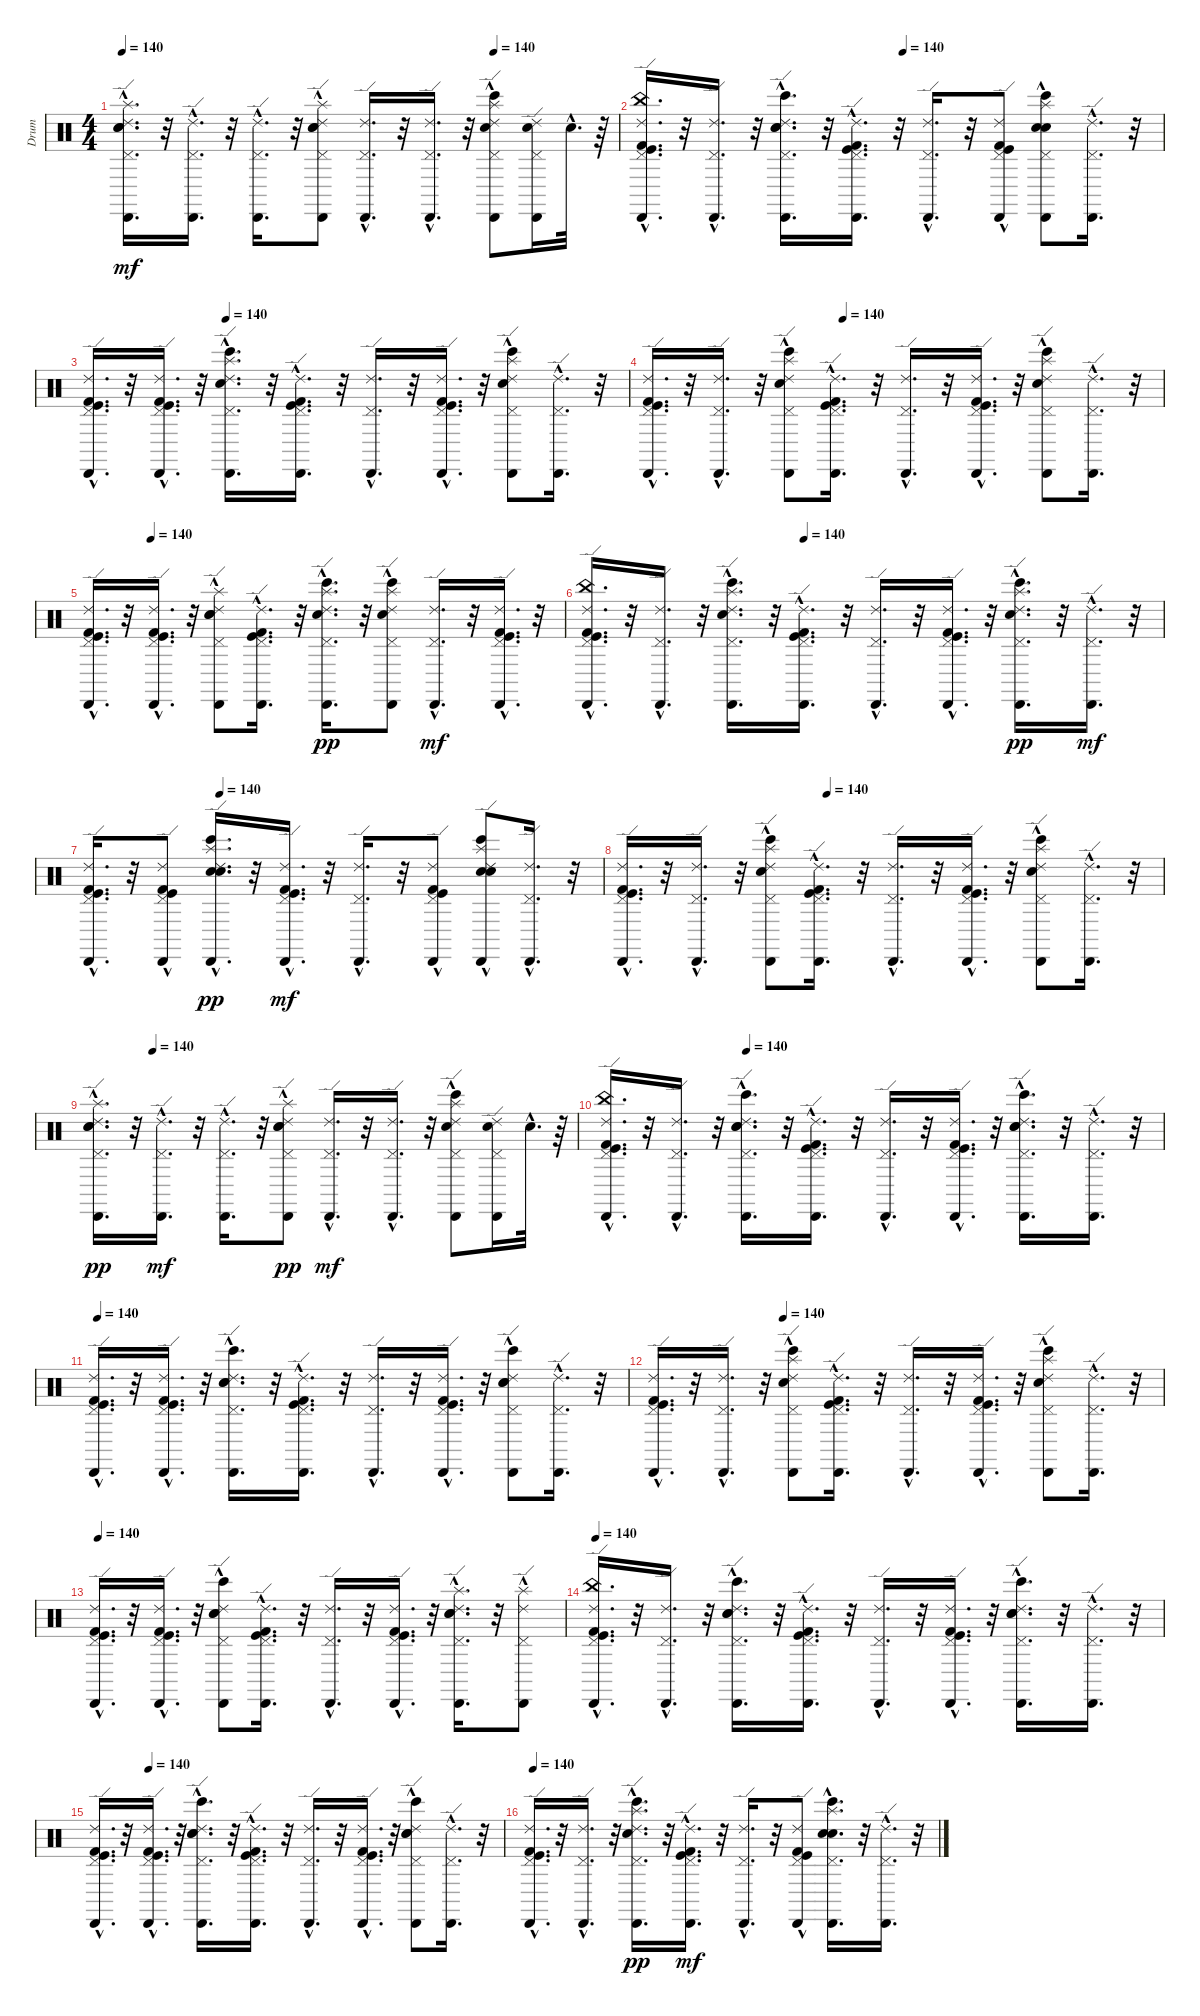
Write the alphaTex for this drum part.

\track ("Drum" "Drum") {instrument percussion}
\staff {score}
\articulation defaults
\ts (4 4)
\tempo 140
\tempo (140 0.75)
\clef neutral
\ks c
("Pedal Hi-Hat (hit)"{hac} "Cabasa (hit)"{hac} "Ride (edge) 2"{hac} "Electric Snare (hit)"{hac} "Snare (hit) 2"{hac} "Splash (hit)"{hac}).16{d dy mf} r.32 ("Pedal Hi-Hat (hit)"{hac} "Ride (edge) 2"{hac} "Cabasa (hit)"{hac}).16{d} r.32 ("Ride (edge) 2"{hac} "Cabasa (hit)"{hac} "Pedal Hi-Hat (hit)"{hac}).16{d} r.32 ("Pedal Hi-Hat (hit)"{hac} "Cabasa (hit)"{hac} "Ride (edge) 2"{hac} "Electric Snare (hit)"{hac} "Snare (hit) 2"{hac} "Splash (hit)"{hac}).8 ("Pedal Hi-Hat (hit)"{hac} "Ride (edge) 2"{hac} "Cabasa (hit)"{hac}).16{d} r.32 ("Pedal Hi-Hat (hit)"{hac} "Ride (edge) 2"{hac} "Cabasa (hit)"{hac}).16{d} r.32 ("Pedal Hi-Hat (hit)"{hac} "Ride (edge) 2"{hac} "Splash (hit)" "Cabasa (hit)"{hac} "Bongo High (hit)"{hac} "Electric Snare (hit)"{hac}).8 ("Pedal Hi-Hat (hit)" "Ride (edge) 2" "Cabasa (hit)" "Snare (hit) 2").16 "Snare (hit) 2"{hac}.32{d} r.64 |
\tempo (140 0.5)
("Cabasa (hit)"{hac} "Kick (hit)"{hac} "Ride (edge) 2"{hac} "China (hit)"{hac} "Kick (hit) 2"{hac} "Pedal Hi-Hat (hit)"{hac}).16{d} r.32 ("Ride (edge) 2"{hac} "Cabasa (hit)"{hac} "Pedal Hi-Hat (hit)"{hac}).16{d} r.32 ("Bongo High (hit)"{hac} "Cabasa (hit)"{hac} "Pedal Hi-Hat (hit)"{hac} "Snare (hit) 2"{hac} "Electric Snare (hit)"{hac} "Ride (edge) 2"{hac}).16{d} r.32 ("Kick (hit) 2"{hac} "Pedal Hi-Hat (hit)"{hac} "Kick (hit)"{hac} "Ride (edge) 2"{hac} "Cabasa (hit)"{hac}).16{d} r.32 ("Ride (edge) 2"{hac} "Pedal Hi-Hat (hit)"{hac} "Cabasa (hit)"{hac}).16{d} r.32 ("Ride (edge) 2"{hac} "Cabasa (hit)"{hac} "Kick (hit) 2"{hac} "Kick (hit)"{hac} "Pedal Hi-Hat (hit)"{hac}).8 ("Splash (hit)"{hac} "Electric Snare (hit)" "Pedal Hi-Hat (hit)"{hac} "Cabasa (hit)"{hac} "Snare (hit) 2"{hac} "Bongo High (hit)"{hac}).8 ("Pedal Hi-Hat (hit)"{hac} "Ride (edge) 2"{hac} "Cabasa (hit)"{hac}).16{d} r.32 |
\tempo (140 0.25)
("Kick (hit)"{hac} "Cabasa (hit)"{hac} "Ride (edge) 2"{hac} "Pedal Hi-Hat (hit)"{hac} "Kick (hit) 2"{hac}).16{d} r.32 ("Cabasa (hit)"{hac} "Ride (edge) 2"{hac} "Kick (hit) 2"{hac} "Kick (hit)"{hac} "Pedal Hi-Hat (hit)"{hac}).16{d} r.32 ("Splash (hit)"{hac} "Pedal Hi-Hat (hit)"{hac} "Cabasa (hit)"{hac} "Ride (edge) 2"{hac} "Bongo High (hit)"{hac} "Snare (hit) 2"{hac}).16{d} r.32 ("Kick (hit) 2"{hac} "Kick (hit)"{hac} "Cabasa (hit)"{hac} "Pedal Hi-Hat (hit)"{hac} "Ride (edge) 2"{hac}).16{d} r.32 ("Ride (edge) 2"{hac} "Pedal Hi-Hat (hit)"{hac} "Cabasa (hit)"{hac}).16{d} r.32 ("Pedal Hi-Hat (hit)"{hac} "Kick (hit)"{hac} "Kick (hit) 2"{hac} "Cabasa (hit)"{hac} "Ride (edge) 2"{hac}).16{d} r.32 ("Ride (edge) 2"{hac} "Pedal Hi-Hat (hit)"{hac} "Cabasa (hit)"{hac} "Splash (hit)"{hac} "Bongo High (hit)"{hac} "Snare (hit) 2").8 ("Pedal Hi-Hat (hit)"{hac} "Ride (edge) 2"{hac} "Cabasa (hit)"{hac}).16{d} r.32 |
\tempo (140 0.375)
("Kick (hit)"{hac} "Cabasa (hit)"{hac} "Ride (edge) 2"{hac} "Pedal Hi-Hat (hit)"{hac} "Kick (hit) 2"{hac}).16{d} r.32 ("Cabasa (hit)"{hac} "Ride (edge) 2"{hac} "Pedal Hi-Hat (hit)"{hac}).16{d} r.32 ("Bongo High (hit)"{hac} "Electric Snare (hit)" "Splash (hit)"{hac} "Pedal Hi-Hat (hit)"{hac} "Ride (edge) 2"{hac} "Cabasa (hit)"{hac}).8 ("Cabasa (hit)"{hac} "Kick (hit) 2"{hac} "Ride (edge) 2"{hac} "Kick (hit)"{hac} "Pedal Hi-Hat (hit)"{hac}).16{d} r.32 ("Ride (edge) 2"{hac} "Cabasa (hit)"{hac} "Pedal Hi-Hat (hit)"{hac}).16{d} r.32 ("Cabasa (hit)"{hac} "Kick (hit)"{hac} "Ride (edge) 2"{hac} "Pedal Hi-Hat (hit)"{hac} "Kick (hit) 2"{hac}).16{d} r.32 ("Snare (hit) 2"{hac} "Splash (hit)"{hac} "Cabasa (hit)"{hac} "Bongo High (hit)" "Pedal Hi-Hat (hit)"{hac} "Ride (edge) 2"{hac}).8 ("Cabasa (hit)"{hac} "Ride (edge) 2"{hac} "Pedal Hi-Hat (hit)"{hac}).16{d} r.32 |
\tempo (140 0.125)
("Cabasa (hit)"{hac} "Kick (hit)"{hac} "Kick (hit) 2"{hac} "Ride (edge) 2"{hac} "Pedal Hi-Hat (hit)"{hac}).16{d} r.32 ("Ride (edge) 2"{hac} "Pedal Hi-Hat (hit)"{hac} "Kick (hit) 2"{hac} "Cabasa (hit)"{hac} "Kick (hit)"{hac}).16{d} r.32 ("Snare (hit) 2"{hac} "Cabasa (hit)"{hac} "Electric Snare (hit)"{hac} "Splash (hit)"{hac} "Pedal Hi-Hat (hit)"{hac} "Ride (edge) 2"{hac}).8 ("Ride (edge) 2"{hac} "Pedal Hi-Hat (hit)"{hac} "Kick (hit) 2"{hac} "Cabasa (hit)"{hac} "Kick (hit)"{hac}).16{d} r.32 ("Cabasa (hit)"{hac} "Ride (edge) 2"{hac} "Pedal Hi-Hat (hit)"{hac} "Electric Snare (hit)"{hac} "Bongo High (hit)"{hac} "Splash (hit)"{hac}).16{d dy pp} r.32 ("Pedal Hi-Hat (hit)"{hac} "Ride (edge) 2"{hac} "Cabasa (hit)"{hac} "Electric Snare (hit)" "Bongo High (hit)"{hac} "Splash (hit)"{hac}).8 ("Ride (edge) 2"{hac} "Pedal Hi-Hat (hit)"{hac} "Cabasa (hit)"{hac}).16{d dy mf} r.32 ("Ride (edge) 2"{hac} "Pedal Hi-Hat (hit)"{hac} "Cabasa (hit)"{hac} "Kick (hit)"{hac} "Kick (hit) 2"{hac}).16{d} r.32 |
\tempo (140 0.375)
("Kick (hit) 2"{hac} "Pedal Hi-Hat (hit)"{hac} "China (hit)"{hac} "Ride (edge) 2"{hac} "Kick (hit)"{hac} "Cabasa (hit)"{hac}).16{d} r.32 ("Cabasa (hit)"{hac} "Ride (edge) 2"{hac} "Pedal Hi-Hat (hit)"{hac}).16{d} r.32 ("Splash (hit)"{hac} "Ride (edge) 2"{hac} "Pedal Hi-Hat (hit)"{hac} "Cabasa (hit)"{hac} "Bongo High (hit)"{hac} "Snare (hit) 2"{hac}).16{d} r.32 ("Kick (hit)"{hac} "Pedal Hi-Hat (hit)"{hac} "Ride (edge) 2"{hac} "Cabasa (hit)"{hac} "Kick (hit) 2"{hac}).16{d} r.32 ("Cabasa (hit)"{hac} "Ride (edge) 2"{hac} "Pedal Hi-Hat (hit)"{hac}).16{d} r.32 ("Kick (hit)"{hac} "Kick (hit) 2"{hac} "Cabasa (hit)"{hac} "Pedal Hi-Hat (hit)"{hac} "Ride (edge) 2"{hac}).16{d} r.32 ("Snare (hit) 2"{hac} "Cabasa (hit)"{hac} "Pedal Hi-Hat (hit)"{hac} "Ride (edge) 2"{hac} "Bongo High (hit)"{hac} "Splash (hit)"{hac}).16{d dy pp} r.32 ("Ride (edge) 2"{hac} "Pedal Hi-Hat (hit)"{hac} "Cabasa (hit)"{hac}).16{d dy mf} r.32 |
\tempo (140 0.25)
("Pedal Hi-Hat (hit)"{hac} "Kick (hit) 2"{hac} "Cabasa (hit)"{hac} "Ride (edge) 2"{hac} "Kick (hit)"{hac}).16{d} r.32 ("Pedal Hi-Hat (hit)"{hac} "Kick (hit) 2"{hac} "Kick (hit)"{hac} "Ride (edge) 2"{hac} "Cabasa (hit)"{hac}).8 ("Snare (hit) 2"{hac} "Electric Snare (hit)"{hac} "Ride (edge) 2"{hac} "Bongo High (hit)"{hac} "Cabasa (hit)"{hac} "Splash (hit)"{hac}).16{d dy pp} r.32 ("Pedal Hi-Hat (hit)"{hac} "Cabasa (hit)"{hac} "Ride (edge) 2"{hac} "Kick (hit)"{hac} "Kick (hit) 2"{hac}).16{d dy mf} r.32 ("Cabasa (hit)"{hac} "Pedal Hi-Hat (hit)"{hac} "Ride (edge) 2"{hac}).16{d} r.32 ("Cabasa (hit)"{hac} "Ride (edge) 2"{hac} "Kick (hit) 2"{hac} "Pedal Hi-Hat (hit)"{hac} "Kick (hit)"{hac}).8 ("Electric Snare (hit)" "Bongo High (hit)"{hac} "Splash (hit)"{hac} "Snare (hit) 2"{hac} "Cabasa (hit)"{hac} "Ride (edge) 2"{hac}).8 ("Cabasa (hit)"{hac} "Pedal Hi-Hat (hit)"{hac} "Ride (edge) 2"{hac}).16{d} r.32 |
\tempo (140 0.375)
("Pedal Hi-Hat (hit)"{hac} "Kick (hit)"{hac} "Cabasa (hit)"{hac} "Ride (edge) 2"{hac} "Kick (hit) 2"{hac}).16{d} r.32 ("Cabasa (hit)"{hac} "Pedal Hi-Hat (hit)"{hac} "Ride (edge) 2"{hac}).16{d} r.32 ("Ride (edge) 2"{hac} "Cabasa (hit)"{hac} "Splash (hit)"{hac} "Pedal Hi-Hat (hit)"{hac} "Bongo High (hit)"{hac} "Snare (hit) 2").8 ("Kick (hit)"{hac} "Ride (edge) 2"{hac} "Cabasa (hit)"{hac} "Kick (hit) 2"{hac} "Pedal Hi-Hat (hit)"{hac}).16{d} r.32 ("Cabasa (hit)"{hac} "Pedal Hi-Hat (hit)"{hac} "Ride (edge) 2"{hac}).16{d} r.32 ("Pedal Hi-Hat (hit)"{hac} "Cabasa (hit)"{hac} "Kick (hit) 2"{hac} "Kick (hit)"{hac} "Ride (edge) 2"{hac}).16{d} r.32 ("Electric Snare (hit)"{hac} "Pedal Hi-Hat (hit)"{hac} "Ride (edge) 2"{hac} "Splash (hit)"{hac} "Cabasa (hit)"{hac} "Bongo High (hit)").8 ("Cabasa (hit)"{hac} "Pedal Hi-Hat (hit)"{hac} "Ride (edge) 2"{hac}).16{d} r.32 |
\tempo (140 0.125)
("Pedal Hi-Hat (hit)"{hac} "Cabasa (hit)"{hac} "Ride (edge) 2"{hac} "Electric Snare (hit)"{hac} "Snare (hit) 2"{hac} "Splash (hit)"{hac}).16{d dy pp} r.32 ("Pedal Hi-Hat (hit)"{hac} "Ride (edge) 2"{hac} "Cabasa (hit)"{hac}).16{d dy mf} r.32 ("Ride (edge) 2"{hac} "Cabasa (hit)"{hac} "Pedal Hi-Hat (hit)"{hac}).16{d} r.32 ("Pedal Hi-Hat (hit)"{hac} "Cabasa (hit)"{hac} "Ride (edge) 2"{hac} "Electric Snare (hit)"{hac} "Snare (hit) 2"{hac} "Splash (hit)"{hac}).8{dy pp} ("Pedal Hi-Hat (hit)"{hac} "Ride (edge) 2"{hac} "Cabasa (hit)"{hac}).16{d dy mf} r.32 ("Pedal Hi-Hat (hit)"{hac} "Ride (edge) 2"{hac} "Cabasa (hit)"{hac}).16{d} r.32 ("Pedal Hi-Hat (hit)"{hac} "Ride (edge) 2"{hac} "Splash (hit)" "Cabasa (hit)"{hac} "Bongo High (hit)"{hac} "Electric Snare (hit)"{hac}).8 ("Pedal Hi-Hat (hit)" "Ride (edge) 2" "Cabasa (hit)" "Snare (hit) 2").16 "Snare (hit) 2"{hac}.32{d} r.64 |
\tempo (140 0.25)
("Pedal Hi-Hat (hit)"{hac} "Kick (hit)"{hac} "Kick (hit) 2"{hac} "Ride (edge) 2"{hac} "Cabasa (hit)"{hac} "China (hit)"{hac}).16{d} r.32 ("Pedal Hi-Hat (hit)"{hac} "Ride (edge) 2"{hac} "Cabasa (hit)"{hac}).16{d} r.32 ("Pedal Hi-Hat (hit)"{hac} "Snare (hit) 2"{hac} "Ride (edge) 2"{hac} "Cabasa (hit)"{hac} "Electric Snare (hit)"{hac} "Bongo High (hit)"{hac}).16{d} r.32 ("Pedal Hi-Hat (hit)"{hac} "Kick (hit)"{hac} "Kick (hit) 2"{hac} "Ride (edge) 2"{hac} "Cabasa (hit)"{hac}).16{d} r.32 ("Pedal Hi-Hat (hit)"{hac} "Ride (edge) 2"{hac} "Cabasa (hit)"{hac}).16{d} r.32 ("Pedal Hi-Hat (hit)"{hac} "Kick (hit)"{hac} "Kick (hit) 2"{hac} "Ride (edge) 2"{hac} "Cabasa (hit)"{hac}).16{d} r.32 ("Pedal Hi-Hat (hit)"{hac} "Snare (hit) 2"{hac} "Ride (edge) 2"{hac} "Cabasa (hit)"{hac} "Electric Snare (hit)"{hac} "Bongo High (hit)"{hac}).16{d} r.32 ("Pedal Hi-Hat (hit)"{hac} "Ride (edge) 2"{hac} "Cabasa (hit)"{hac}).16{d} r.32 |
\tempo 140
("Kick (hit)"{hac} "Pedal Hi-Hat (hit)"{hac} "Kick (hit) 2"{hac} "Ride (edge) 2"{hac} "Cabasa (hit)"{hac}).16{d} r.32 ("Pedal Hi-Hat (hit)"{hac} "Kick (hit)"{hac} "Kick (hit) 2"{hac} "Ride (edge) 2"{hac} "Cabasa (hit)"{hac}).16{d} r.32 ("Snare (hit) 2"{hac} "Pedal Hi-Hat (hit)"{hac} "Ride (edge) 2"{hac} "Cabasa (hit)"{hac} "Bongo High (hit)"{hac} "Electric Snare (hit)"{hac}).16{d} r.32 ("Kick (hit)"{hac} "Pedal Hi-Hat (hit)"{hac} "Kick (hit) 2"{hac} "Ride (edge) 2"{hac} "Cabasa (hit)"{hac}).16{d} r.32 ("Pedal Hi-Hat (hit)"{hac} "Ride (edge) 2"{hac} "Cabasa (hit)"{hac}).16{d} r.32 ("Kick (hit)"{hac} "Pedal Hi-Hat (hit)"{hac} "Kick (hit) 2"{hac} "Ride (edge) 2"{hac} "Cabasa (hit)"{hac}).16{d} r.32 ("Snare (hit) 2"{hac} "Pedal Hi-Hat (hit)"{hac} "Ride (edge) 2"{hac} "Cabasa (hit)"{hac} "Bongo High (hit)"{hac} "Electric Snare (hit)").8 ("Pedal Hi-Hat (hit)"{hac} "Ride (edge) 2"{hac} "Cabasa (hit)"{hac}).16{d} r.32 |
\tempo (140 0.25)
("Cabasa (hit)"{hac} "Ride (edge) 2"{hac} "Kick (hit) 2"{hac} "Pedal Hi-Hat (hit)"{hac} "Kick (hit)"{hac}).16{d} r.32 ("Cabasa (hit)"{hac} "Pedal Hi-Hat (hit)"{hac} "Ride (edge) 2"{hac}).16{d} r.32 ("Snare (hit) 2" "Cabasa (hit)"{hac} "Splash (hit)"{hac} "Pedal Hi-Hat (hit)"{hac} "Ride (edge) 2"{hac} "Bongo High (hit)"{hac}).8 ("Cabasa (hit)"{hac} "Ride (edge) 2"{hac} "Kick (hit) 2"{hac} "Kick (hit)"{hac} "Pedal Hi-Hat (hit)"{hac}).16{d} r.32 ("Ride (edge) 2"{hac} "Pedal Hi-Hat (hit)"{hac} "Cabasa (hit)"{hac}).16{d} r.32 ("Ride (edge) 2"{hac} "Pedal Hi-Hat (hit)"{hac} "Cabasa (hit)"{hac} "Kick (hit) 2"{hac} "Kick (hit)"{hac}).16{d} r.32 ("Electric Snare (hit)"{hac} "Splash (hit)" "Bongo High (hit)"{hac} "Ride (edge) 2"{hac} "Pedal Hi-Hat (hit)"{hac} "Cabasa (hit)"{hac}).8 ("Ride (edge) 2"{hac} "Cabasa (hit)"{hac} "Pedal Hi-Hat (hit)"{hac}).16{d} r.32 |
\tempo 140
("Cabasa (hit)"{hac} "Kick (hit)"{hac} "Kick (hit) 2"{hac} "Pedal Hi-Hat (hit)"{hac} "Ride (edge) 2"{hac}).16{d} r.32 ("Kick (hit) 2"{hac} "Kick (hit)"{hac} "Cabasa (hit)"{hac} "Ride (edge) 2"{hac} "Pedal Hi-Hat (hit)"{hac}).16{d} r.32 ("Cabasa (hit)"{hac} "Pedal Hi-Hat (hit)"{hac} "Ride (edge) 2"{hac} "Electric Snare (hit)"{hac} "Bongo High (hit)" "Snare (hit) 2"{hac}).8 ("Kick (hit)"{hac} "Cabasa (hit)"{hac} "Pedal Hi-Hat (hit)"{hac} "Kick (hit) 2"{hac} "Ride (edge) 2"{hac}).16{d} r.32 ("Pedal Hi-Hat (hit)"{hac} "Ride (edge) 2"{hac} "Cabasa (hit)"{hac}).16{d} r.32 ("Kick (hit) 2"{hac} "Pedal Hi-Hat (hit)"{hac} "Cabasa (hit)"{hac} "Ride (edge) 2"{hac} "Kick (hit)"{hac}).16{d} r.32 ("Splash (hit)"{hac} "Snare (hit) 2"{hac} "Cabasa (hit)"{hac} "Pedal Hi-Hat (hit)"{hac} "Ride (edge) 2"{hac} "Electric Snare (hit)"{hac}).16{d} r.32 ("Splash (hit)" "Pedal Hi-Hat (hit)"{hac} "Ride (edge) 2"{hac} "Cabasa (hit)"{hac}).8 |
\tempo 140
("Pedal Hi-Hat (hit)"{hac} "Kick (hit)"{hac} "Kick (hit) 2"{hac} "Ride (edge) 2"{hac} "Cabasa (hit)"{hac} "China (hit)"{hac}).16{d} r.32 ("Pedal Hi-Hat (hit)"{hac} "Ride (edge) 2"{hac} "Cabasa (hit)"{hac}).16{d} r.32 ("Pedal Hi-Hat (hit)"{hac} "Snare (hit) 2"{hac} "Ride (edge) 2"{hac} "Cabasa (hit)"{hac} "Electric Snare (hit)"{hac} "Bongo High (hit)"{hac}).16{d} r.32 ("Pedal Hi-Hat (hit)"{hac} "Kick (hit)"{hac} "Kick (hit) 2"{hac} "Ride (edge) 2"{hac} "Cabasa (hit)"{hac}).16{d} r.32 ("Pedal Hi-Hat (hit)"{hac} "Ride (edge) 2"{hac} "Cabasa (hit)"{hac}).16{d} r.32 ("Pedal Hi-Hat (hit)"{hac} "Kick (hit)"{hac} "Kick (hit) 2"{hac} "Ride (edge) 2"{hac} "Cabasa (hit)"{hac}).16{d} r.32 ("Pedal Hi-Hat (hit)"{hac} "Snare (hit) 2"{hac} "Ride (edge) 2"{hac} "Cabasa (hit)"{hac} "Electric Snare (hit)"{hac} "Bongo High (hit)"{hac}).16{d} r.32 ("Pedal Hi-Hat (hit)"{hac} "Ride (edge) 2"{hac} "Cabasa (hit)"{hac}).16{d} r.32 |
\tempo (140 0.125)
("Kick (hit)"{hac} "Pedal Hi-Hat (hit)"{hac} "Kick (hit) 2"{hac} "Ride (edge) 2"{hac} "Cabasa (hit)"{hac}).16{d} r.32 ("Pedal Hi-Hat (hit)"{hac} "Kick (hit)"{hac} "Kick (hit) 2"{hac} "Ride (edge) 2"{hac} "Cabasa (hit)"{hac}).16{d} r.32 ("Snare (hit) 2"{hac} "Pedal Hi-Hat (hit)"{hac} "Ride (edge) 2"{hac} "Cabasa (hit)"{hac} "Bongo High (hit)"{hac} "Electric Snare (hit)"{hac}).16{d} r.32 ("Kick (hit)"{hac} "Pedal Hi-Hat (hit)"{hac} "Kick (hit) 2"{hac} "Ride (edge) 2"{hac} "Cabasa (hit)"{hac}).16{d} r.32 ("Pedal Hi-Hat (hit)"{hac} "Ride (edge) 2"{hac} "Cabasa (hit)"{hac}).16{d} r.32 ("Kick (hit)"{hac} "Pedal Hi-Hat (hit)"{hac} "Kick (hit) 2"{hac} "Ride (edge) 2"{hac} "Cabasa (hit)"{hac}).16{d} r.32 ("Snare (hit) 2" "Pedal Hi-Hat (hit)"{hac} "Ride (edge) 2"{hac} "Cabasa (hit)"{hac} "Bongo High (hit)"{hac} "Electric Snare (hit)"{hac}).8 ("Pedal Hi-Hat (hit)"{hac} "Ride (edge) 2"{hac} "Cabasa (hit)"{hac}).16{d} r.32 |
\tempo 140
("Pedal Hi-Hat (hit)"{hac} "Cabasa (hit)"{hac} "Ride (edge) 2"{hac} "Kick (hit)"{hac} "Kick (hit) 2"{hac}).16{d} r.32 ("Pedal Hi-Hat (hit)"{hac} "Ride (edge) 2"{hac} "Cabasa (hit)"{hac}).16{d} r.32 ("Bongo High (hit)"{hac} "Electric Snare (hit)"{hac} "Ride (edge) 2"{hac} "Cabasa (hit)"{hac} "Pedal Hi-Hat (hit)"{hac} "Splash (hit)"{hac}).16{d dy pp} r.32 ("Kick (hit) 2"{hac} "Pedal Hi-Hat (hit)"{hac} "Cabasa (hit)"{hac} "Ride (edge) 2"{hac} "Kick (hit)"{hac}).16{d dy mf} r.32 ("Cabasa (hit)"{hac} "Ride (edge) 2"{hac} "Pedal Hi-Hat (hit)"{hac}).16{d} r.32 ("Cabasa (hit)"{hac} "Kick (hit)"{hac} "Ride (edge) 2"{hac} "Pedal Hi-Hat (hit)"{hac} "Kick (hit) 2"{hac}).8 ("Splash (hit)"{hac} "Bongo High (hit)"{hac} "Cabasa (hit)"{hac} "Snare (hit) 2"{hac} "Electric Snare (hit)"{hac} "Pedal Hi-Hat (hit)"{hac}).16{d} r.32 ("Cabasa (hit)"{hac} "Ride (edge) 2"{hac} "Pedal Hi-Hat (hit)"{hac}).16{d} r.32
